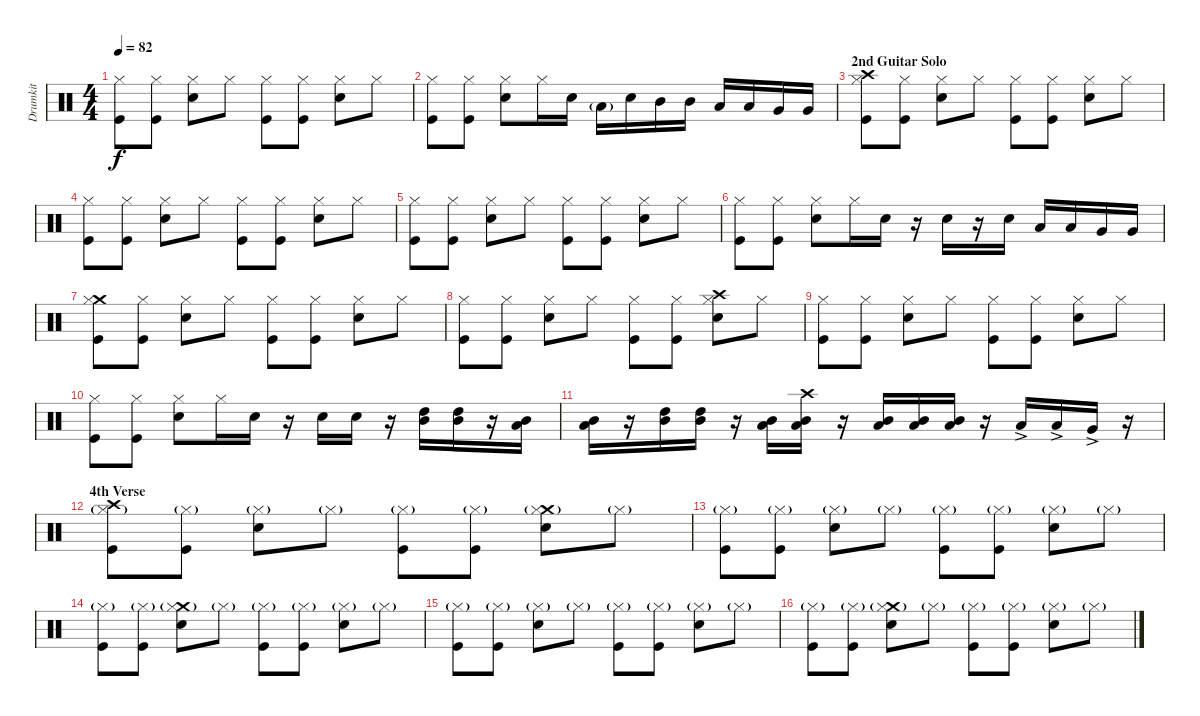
\track ("Drumkit" "Drumkit") {instrument percussion}
\staff {score}
\articulation defaults
\ts (4 4)
\tempo 82
\clef neutral
\ks c
("Hi-Hat (closed)" "Kick (hit)").8{dy f} ("Hi-Hat (closed)" "Kick (hit)").8 ("Hi-Hat (closed)" "Snare (hit) 2").8 "Hi-Hat (closed)".8 ("Hi-Hat (closed)" "Kick (hit)").8 ("Hi-Hat (closed)" "Kick (hit)").8 ("Hi-Hat (closed)" "Snare (hit) 2").8 "Hi-Hat (closed)".8 |
("Hi-Hat (closed)" "Kick (hit)").8 ("Hi-Hat (closed)" "Kick (hit)").8 ("Hi-Hat (closed)" "Snare (hit) 2").8 "Hi-Hat (closed)".16 "Snare (hit) 2".16 "Low Floor Tom (hit)"{g}.16 "Snare (hit) 2".16 "Mid Tom (hit)".16 "Mid Tom (hit)".16 "Low Tom (hit)".16 "Low Tom (hit)".16 "Very Low Tom (hit)".16 "Very Low Tom (hit)".16 |
\section ("" "2nd Guitar Solo")
("Crash high (hit)" "Hi-Hat (closed)" "Kick (hit)").8 ("Hi-Hat (closed)" "Kick (hit)").8 ("Hi-Hat (closed)" "Snare (hit) 2").8 "Hi-Hat (closed)".8 ("Hi-Hat (closed)" "Kick (hit)").8 ("Hi-Hat (closed)" "Kick (hit)").8 ("Hi-Hat (closed)" "Snare (hit) 2").8 "Hi-Hat (closed)".8 |
("Hi-Hat (closed)" "Kick (hit)").8 ("Hi-Hat (closed)" "Kick (hit)").8 ("Hi-Hat (closed)" "Snare (hit) 2").8 "Hi-Hat (closed)".8 ("Hi-Hat (closed)" "Kick (hit)").8 ("Hi-Hat (closed)" "Kick (hit)").8 ("Hi-Hat (closed)" "Snare (hit) 2").8 "Hi-Hat (closed)".8 |
("Hi-Hat (closed)" "Kick (hit)").8 ("Hi-Hat (closed)" "Kick (hit)").8 ("Hi-Hat (closed)" "Snare (hit) 2").8 "Hi-Hat (closed)".8 ("Hi-Hat (closed)" "Kick (hit)").8 ("Hi-Hat (closed)" "Kick (hit)").8 ("Hi-Hat (closed)" "Snare (hit) 2").8 "Hi-Hat (closed)".8 |
("Hi-Hat (closed)" "Kick (hit)").8 ("Hi-Hat (closed)" "Kick (hit)").8 ("Hi-Hat (closed)" "Snare (hit) 2").8 "Hi-Hat (closed)".16 "Snare (hit) 2".16 r.16 "Snare (hit) 2".16 r.16 "Snare (hit) 2".16 "Low Tom (hit)".16 "Low Tom (hit)".16 "Very Low Tom (hit)".16 "Very Low Tom (hit)".16 |
("Crash medium (hit)" "Hi-Hat (closed)" "Kick (hit)").8 ("Hi-Hat (closed)" "Kick (hit)").8 ("Hi-Hat (closed)" "Snare (hit) 2").8 "Hi-Hat (closed)".8 ("Hi-Hat (closed)" "Kick (hit)").8 ("Hi-Hat (closed)" "Kick (hit)").8 ("Hi-Hat (closed)" "Snare (hit) 2").8 "Hi-Hat (closed)".8 |
("Hi-Hat (closed)" "Kick (hit)").8 ("Hi-Hat (closed)" "Kick (hit)").8 ("Hi-Hat (closed)" "Snare (hit) 2").8 "Hi-Hat (closed)".8 ("Hi-Hat (closed)" "Kick (hit)").8 ("Hi-Hat (closed)" "Kick (hit)").8 ("Crash high (hit)" "Hi-Hat (closed)" "Snare (hit) 2").8 "Hi-Hat (closed)".8 |
("Hi-Hat (closed)" "Kick (hit)").8 ("Hi-Hat (closed)" "Kick (hit)").8 ("Hi-Hat (closed)" "Snare (hit) 2").8 "Hi-Hat (closed)".8 ("Hi-Hat (closed)" "Kick (hit)").8 ("Hi-Hat (closed)" "Kick (hit)").8 ("Hi-Hat (closed)" "Snare (hit) 2").8 "Hi-Hat (closed)".8 |
("Hi-Hat (closed)" "Kick (hit)").8 ("Hi-Hat (closed)" "Kick (hit)").8 ("Hi-Hat (closed)" "Snare (hit) 2").8 "Hi-Hat (closed)".16 "Snare (hit) 2".16 r.16 "Snare (hit) 2".16 "Snare (hit) 2".16 r.16 ("High Tom (hit)" "Mid Tom (hit)").16 ("High Tom (hit)" "Mid Tom (hit)").16 r.16 ("Mid Tom (hit)" "Low Tom (hit)").16 |
("Mid Tom (hit)" "Low Tom (hit)").16 r.16 ("High Tom (hit)" "Mid Tom (hit)").16 ("High Tom (hit)" "Mid Tom (hit)").16 r.16 ("Mid Tom (hit)" "Low Tom (hit)").16 ("Crash high (hit)" "Mid Tom (hit)" "Low Tom (hit)").16 r.16 ("Low Tom (hit)" "Mid Tom (hit)").16 ("Low Tom (hit)" "Mid Tom (hit)").16 ("Low Tom (hit)" "Mid Tom (hit)").16 r.16 "Low Tom (hit)"{ac}.16 "Low Tom (hit)"{ac}.16 "Very Low Tom (hit)"{ac}.16 r.16 |
\section ("" "4th Verse")
("Crash high (hit)" "Hi-Hat (closed)"{g} "Kick (hit)").8 ("Hi-Hat (closed)"{g} "Kick (hit)").8 ("Hi-Hat (closed)"{g} "Snare (hit) 2").8 "Hi-Hat (closed)"{g}.8 ("Hi-Hat (closed)"{g} "Kick (hit)").8 ("Hi-Hat (closed)"{g} "Kick (hit)").8 ("Crash medium (hit)" "Hi-Hat (closed)"{g} "Snare (hit) 2").8 "Hi-Hat (closed)"{g}.8 |
("Hi-Hat (closed)"{g} "Kick (hit)").8 ("Hi-Hat (closed)"{g} "Kick (hit)").8 ("Hi-Hat (closed)"{g} "Snare (hit) 2").8 "Hi-Hat (closed)"{g}.8 ("Hi-Hat (closed)"{g} "Kick (hit)").8 ("Hi-Hat (closed)"{g} "Kick (hit)").8 ("Hi-Hat (closed)"{g} "Snare (hit) 2").8 "Hi-Hat (closed)"{g}.8 |
("Hi-Hat (closed)"{g} "Kick (hit)").8 ("Hi-Hat (closed)"{g} "Kick (hit)").8 ("Crash medium (hit)" "Hi-Hat (closed)"{g} "Snare (hit) 2").8 "Hi-Hat (closed)"{g}.8 ("Hi-Hat (closed)"{g} "Kick (hit)").8 ("Hi-Hat (closed)"{g} "Kick (hit)").8 ("Hi-Hat (closed)"{g} "Snare (hit) 2").8 "Hi-Hat (closed)"{g}.8 |
("Hi-Hat (closed)"{g} "Kick (hit)").8 ("Hi-Hat (closed)"{g} "Kick (hit)").8 ("Hi-Hat (closed)"{g} "Snare (hit) 2").8 "Hi-Hat (closed)"{g}.8 ("Hi-Hat (closed)"{g} "Kick (hit)").8 ("Hi-Hat (closed)"{g} "Kick (hit)").8 ("Hi-Hat (closed)"{g} "Snare (hit) 2").8 "Hi-Hat (closed)"{g}.8 |
("Hi-Hat (closed)"{g} "Kick (hit)").8 ("Hi-Hat (closed)"{g} "Kick (hit)").8 ("Crash medium (hit)" "Hi-Hat (closed)"{g} "Snare (hit) 2").8 "Hi-Hat (closed)"{g}.8 ("Hi-Hat (closed)"{g} "Kick (hit)").8 ("Hi-Hat (closed)"{g} "Kick (hit)").8 ("Hi-Hat (closed)"{g} "Snare (hit) 2").8 "Hi-Hat (closed)"{g}.8
